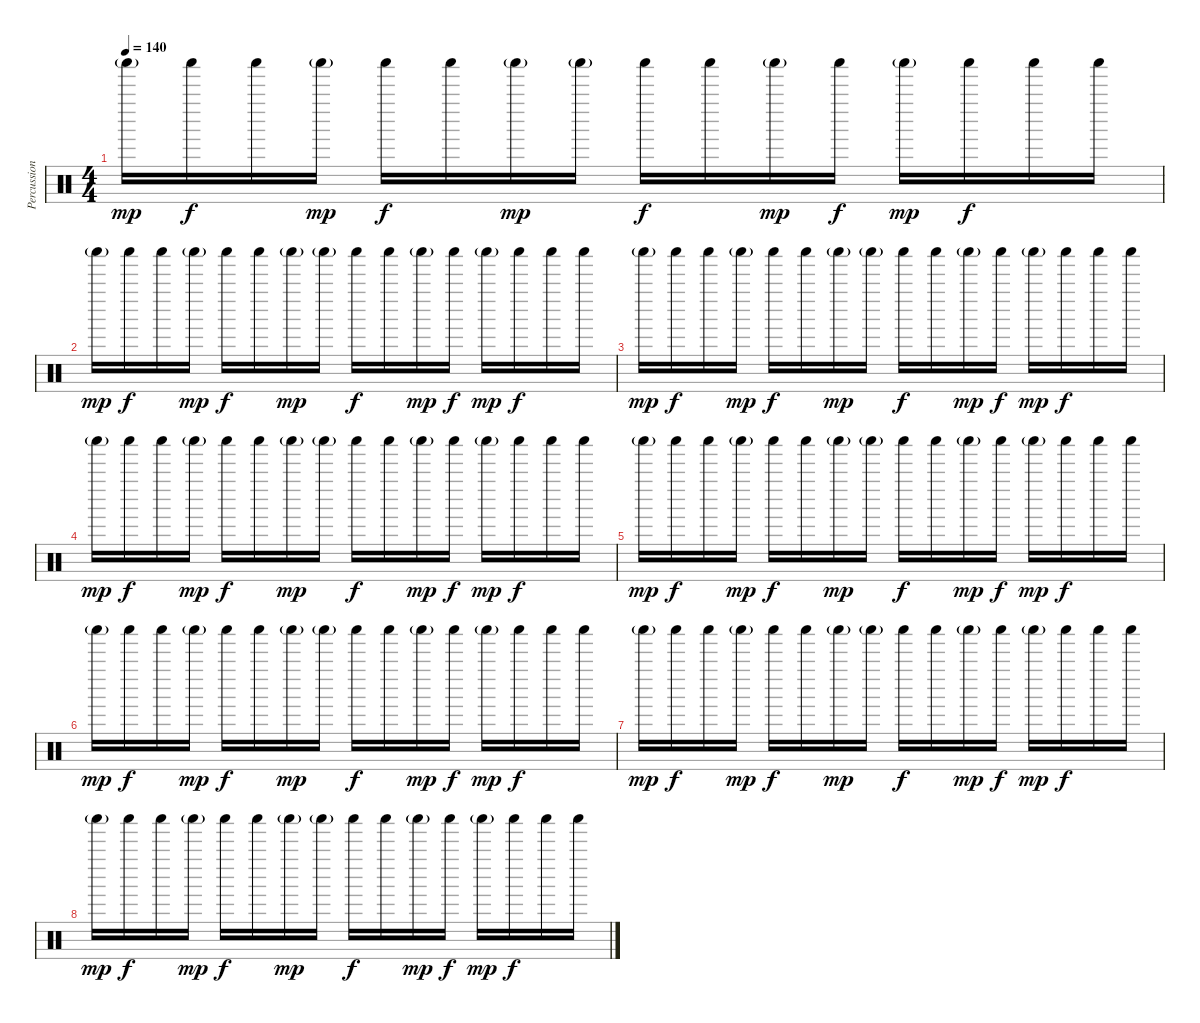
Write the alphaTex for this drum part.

\track ("Percussion" "Percussion") {instrument percussion}
\staff {score}
\articulation defaults
\ts (4 4)
\tempo 140
\clef neutral
\ks c "Shaker (hit)"{g}.16{dy mp} "Shaker (hit)".16{dy f} "Shaker (hit)".16 "Shaker (hit)"{g}.16{dy mp} "Shaker (hit)".16{dy f} "Shaker (hit)".16 "Shaker (hit)"{g}.16{dy mp} "Shaker (hit)"{g}.16 "Shaker (hit)".16{dy f} "Shaker (hit)".16 "Shaker (hit)"{g}.16{dy mp} "Shaker (hit)".16{dy f} "Shaker (hit)"{g}.16{dy mp} "Shaker (hit)".16{dy f} "Shaker (hit)".16 "Shaker (hit)".16
|
"Shaker (hit)"{g}.16{dy mp} "Shaker (hit)".16{dy f} "Shaker (hit)".16 "Shaker (hit)"{g}.16{dy mp} "Shaker (hit)".16{dy f} "Shaker (hit)".16 "Shaker (hit)"{g}.16{dy mp} "Shaker (hit)"{g}.16 "Shaker (hit)".16{dy f} "Shaker (hit)".16 "Shaker (hit)"{g}.16{dy mp} "Shaker (hit)".16{dy f} "Shaker (hit)"{g}.16{dy mp} "Shaker (hit)".16{dy f} "Shaker (hit)".16 "Shaker (hit)".16 |
"Shaker (hit)"{g}.16{dy mp} "Shaker (hit)".16{dy f} "Shaker (hit)".16 "Shaker (hit)"{g}.16{dy mp} "Shaker (hit)".16{dy f} "Shaker (hit)".16 "Shaker (hit)"{g}.16{dy mp} "Shaker (hit)"{g}.16 "Shaker (hit)".16{dy f} "Shaker (hit)".16 "Shaker (hit)"{g}.16{dy mp} "Shaker (hit)".16{dy f} "Shaker (hit)"{g}.16{dy mp} "Shaker (hit)".16{dy f} "Shaker (hit)".16 "Shaker (hit)".16 |
"Shaker (hit)"{g}.16{dy mp} "Shaker (hit)".16{dy f} "Shaker (hit)".16 "Shaker (hit)"{g}.16{dy mp} "Shaker (hit)".16{dy f} "Shaker (hit)".16 "Shaker (hit)"{g}.16{dy mp} "Shaker (hit)"{g}.16 "Shaker (hit)".16{dy f} "Shaker (hit)".16 "Shaker (hit)"{g}.16{dy mp} "Shaker (hit)".16{dy f} "Shaker (hit)"{g}.16{dy mp} "Shaker (hit)".16{dy f} "Shaker (hit)".16 "Shaker (hit)".16 |
"Shaker (hit)"{g}.16{dy mp} "Shaker (hit)".16{dy f} "Shaker (hit)".16 "Shaker (hit)"{g}.16{dy mp} "Shaker (hit)".16{dy f} "Shaker (hit)".16 "Shaker (hit)"{g}.16{dy mp} "Shaker (hit)"{g}.16 "Shaker (hit)".16{dy f} "Shaker (hit)".16 "Shaker (hit)"{g}.16{dy mp} "Shaker (hit)".16{dy f} "Shaker (hit)"{g}.16{dy mp} "Shaker (hit)".16{dy f} "Shaker (hit)".16 "Shaker (hit)".16 |
"Shaker (hit)"{g}.16{dy mp} "Shaker (hit)".16{dy f} "Shaker (hit)".16 "Shaker (hit)"{g}.16{dy mp} "Shaker (hit)".16{dy f} "Shaker (hit)".16 "Shaker (hit)"{g}.16{dy mp} "Shaker (hit)"{g}.16 "Shaker (hit)".16{dy f} "Shaker (hit)".16 "Shaker (hit)"{g}.16{dy mp} "Shaker (hit)".16{dy f} "Shaker (hit)"{g}.16{dy mp} "Shaker (hit)".16{dy f} "Shaker (hit)".16 "Shaker (hit)".16 |
"Shaker (hit)"{g}.16{dy mp} "Shaker (hit)".16{dy f} "Shaker (hit)".16 "Shaker (hit)"{g}.16{dy mp} "Shaker (hit)".16{dy f} "Shaker (hit)".16 "Shaker (hit)"{g}.16{dy mp} "Shaker (hit)"{g}.16 "Shaker (hit)".16{dy f} "Shaker (hit)".16 "Shaker (hit)"{g}.16{dy mp} "Shaker (hit)".16{dy f} "Shaker (hit)"{g}.16{dy mp} "Shaker (hit)".16{dy f} "Shaker (hit)".16 "Shaker (hit)".16 |
"Shaker (hit)"{g}.16{dy mp} "Shaker (hit)".16{dy f} "Shaker (hit)".16 "Shaker (hit)"{g}.16{dy mp} "Shaker (hit)".16{dy f} "Shaker (hit)".16 "Shaker (hit)"{g}.16{dy mp} "Shaker (hit)"{g}.16 "Shaker (hit)".16{dy f} "Shaker (hit)".16 "Shaker (hit)"{g}.16{dy mp} "Shaker (hit)".16{dy f} "Shaker (hit)"{g}.16{dy mp} "Shaker (hit)".16{dy f} "Shaker (hit)".16 "Shaker (hit)".16
